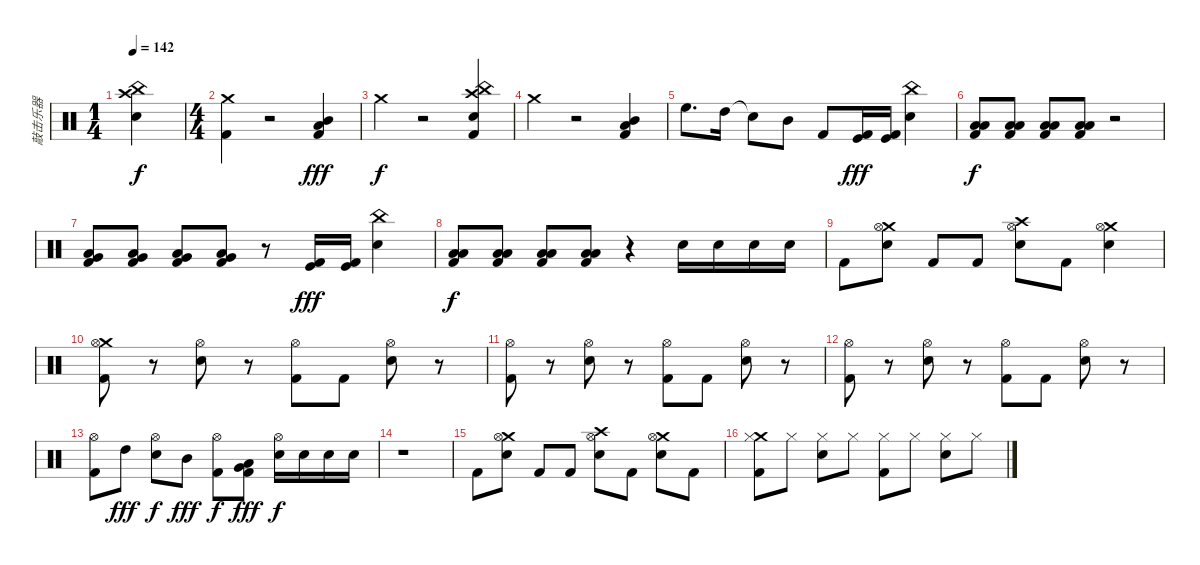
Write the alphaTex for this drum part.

\track ("敲击乐器" "敲击乐器") {instrument percussion}
\staff {score}
\articulation defaults
\ts (1 4)
\tempo 142
\clef neutral
\ks c
("Snare (hit) 2" "Crash high (hit)" "China (hit)").4{dy f} |
\ts (4 4)
("Crash medium (hit)" "Kick (hit) 2").4 r.2 ("Mid Tom (hit)" "Low Tom (hit)" "Kick (hit) 2").4{dy fff} |
"Crash medium (hit)".4{dy f} r.2 ("Snare (hit) 2" "Crash high (hit)" "China (hit)" "Kick (hit) 2").4 |
"Crash medium (hit)".4 r.2 ("Mid Tom (hit)" "Low Tom (hit)" "Kick (hit) 2").4 |
"High Floor Tom (hit)".8{d} "High Tom (hit)".16 "Snare (hit)"{t}.8 "Mid Tom (hit)".8 "Kick (hit) 2".8 ("Kick (hit)" "Kick (hit) 2").16{dy fff} ("Kick (hit)" "Kick (hit) 2").16 ("Snare (hit) 2" "China (hit)").4 |
("Low Tom (hit)" "Low Floor Tom (hit)" "Kick (hit) 2").8{dy f} ("Low Tom (hit)" "Low Floor Tom (hit)" "Kick (hit) 2").8 ("Low Tom (hit)" "Low Floor Tom (hit)" "Kick (hit) 2").8 ("Low Tom (hit)" "Low Floor Tom (hit)" "Kick (hit) 2").8 r.2 |
("Very Low Tom (hit)" "Low Floor Tom (hit)" "Kick (hit) 2").8 ("Very Low Tom (hit)" "Low Floor Tom (hit)" "Kick (hit) 2").8 ("Very Low Tom (hit)" "Low Floor Tom (hit)" "Kick (hit) 2").8 ("Very Low Tom (hit)" "Low Floor Tom (hit)" "Kick (hit) 2").8 r.8 ("Kick (hit)" "Kick (hit) 2").16{dy fff} ("Kick (hit)" "Kick (hit) 2").16 ("Snare (hit) 2" "China (hit)").4 |
("Low Tom (hit)" "Low Floor Tom (hit)" "Kick (hit) 2").8{dy f} ("Low Tom (hit)" "Low Floor Tom (hit)" "Kick (hit) 2").8 ("Low Tom (hit)" "Low Floor Tom (hit)" "Kick (hit) 2").8 ("Low Tom (hit)" "Low Floor Tom (hit)" "Kick (hit) 2").8 r.4 "Snare (hit) 2".16 "Snare (hit) 2".16 "Snare (hit) 2".16 "Snare (hit) 2".16 |
"Kick (hit) 2".8 ("Snare (hit) 2" "Crash medium (hit)" "Hi-Hat (open)").8 "Kick (hit) 2".8 "Kick (hit) 2".8 ("Snare (hit) 2" "Crash high (hit)" "Hi-Hat (open)").8 "Kick (hit) 2".8 ("Snare (hit) 2" "Crash medium (hit)" "Hi-Hat (open)").4 |
("Crash medium (hit)" "Hi-Hat (open)" "Kick (hit) 2").8 r.8 ("Snare (hit) 2" "Hi-Hat (open)").8 r.8 ("Hi-Hat (open)" "Kick (hit) 2").8 "Kick (hit) 2".8 ("Snare (hit) 2" "Hi-Hat (open)").8 r.8 |
("Hi-Hat (open)" "Kick (hit) 2").8 r.8 ("Snare (hit) 2" "Hi-Hat (open)").8 r.8 ("Hi-Hat (open)" "Kick (hit) 2").8 "Kick (hit) 2".8 ("Snare (hit) 2" "Hi-Hat (open)").8 r.8 |
("Hi-Hat (open)" "Kick (hit) 2").8 r.8 ("Snare (hit) 2" "Hi-Hat (open)").8 r.8 ("Hi-Hat (open)" "Kick (hit) 2").8 "Kick (hit) 2".8 ("Snare (hit) 2" "Hi-Hat (open)").8 r.8 |
("Hi-Hat (open)" "Kick (hit) 2").8 "High Tom (hit)".8{dy fff} ("Snare (hit) 2" "Hi-Hat (open)").8{dy f} "Mid Tom (hit)".8{dy fff} ("Hi-Hat (open)" "Kick (hit) 2").8{dy f} ("Very Low Tom (hit)" "Low Floor Tom (hit)" "Kick (hit) 2").8{dy fff} ("Snare (hit) 2" "Hi-Hat (open)").16{dy f} "Snare (hit) 2".16 "Snare (hit) 2".16 "Snare (hit) 2".16 |
r.1 |
"Kick (hit) 2".8 ("Snare (hit) 2" "Crash medium (hit)" "Hi-Hat (open)").8 "Kick (hit) 2".8 "Kick (hit) 2".8 ("Snare (hit) 2" "Crash high (hit)" "Hi-Hat (open)").8 "Kick (hit) 2".8 ("Snare (hit) 2" "Crash medium (hit)" "Hi-Hat (open)").8 "Kick (hit) 2".8 |
("Crash medium (hit)" "Hi-Hat (closed)" "Kick (hit) 2").8 "Hi-Hat (closed)".8 ("Snare (hit) 2" "Hi-Hat (closed)").8 "Hi-Hat (closed)".8 ("Hi-Hat (closed)" "Kick (hit) 2").8 "Hi-Hat (closed)".8 ("Snare (hit) 2" "Hi-Hat (closed)").8 "Hi-Hat (closed)".8
